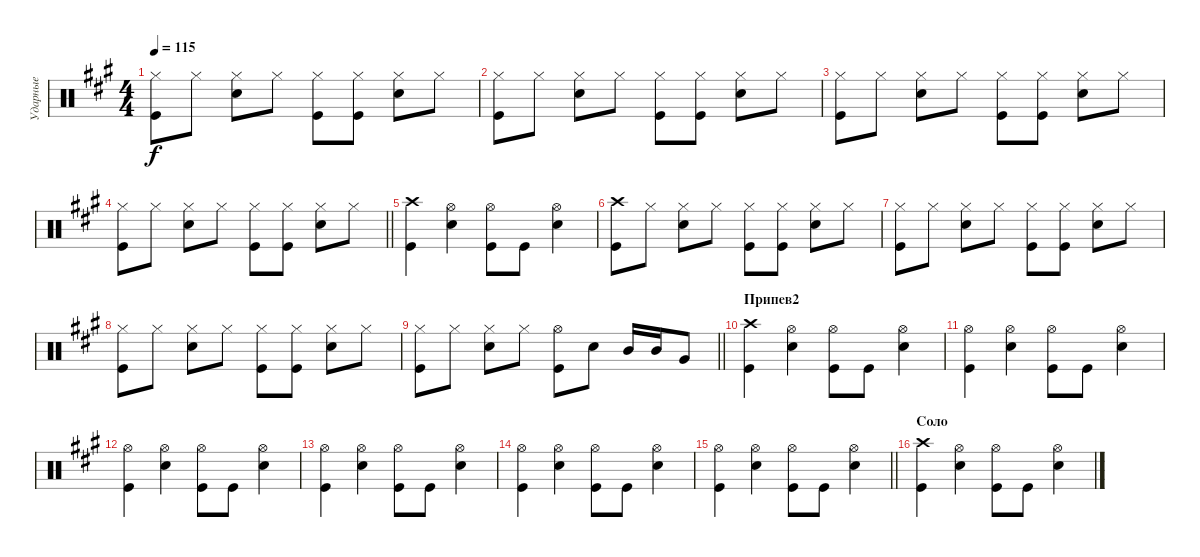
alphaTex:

\track ("Ударные" "Ударные") {instrument percussion}
\staff {score}
\articulation defaults
\ts (4 4)
\tempo 115
\clef neutral
\ks a
("Hi-Hat (closed)" "Kick (hit)").8{dy f} "Hi-Hat (closed)".8 ("Snare (hit) 2" "Hi-Hat (closed)").8 "Hi-Hat (closed)".8 ("Hi-Hat (closed)" "Kick (hit)").8 ("Kick (hit)" "Hi-Hat (closed)").8 ("Hi-Hat (closed)" "Snare (hit) 2").8 "Hi-Hat (closed)".8 |
("Hi-Hat (closed)" "Kick (hit)").8 "Hi-Hat (closed)".8 ("Snare (hit) 2" "Hi-Hat (closed)").8 "Hi-Hat (closed)".8 ("Hi-Hat (closed)" "Kick (hit)").8 ("Kick (hit)" "Hi-Hat (closed)").8 ("Hi-Hat (closed)" "Snare (hit) 2").8 "Hi-Hat (closed)".8 |
("Hi-Hat (closed)" "Kick (hit)").8 "Hi-Hat (closed)".8 ("Snare (hit) 2" "Hi-Hat (closed)").8 "Hi-Hat (closed)".8 ("Hi-Hat (closed)" "Kick (hit)").8 ("Kick (hit)" "Hi-Hat (closed)").8 ("Hi-Hat (closed)" "Snare (hit) 2").8 "Hi-Hat (closed)".8 |
\barLineRight lightlight
("Hi-Hat (closed)" "Kick (hit)").8 "Hi-Hat (closed)".8 ("Snare (hit) 2" "Hi-Hat (closed)").8 "Hi-Hat (closed)".8 ("Hi-Hat (closed)" "Kick (hit)").8 ("Kick (hit)" "Hi-Hat (closed)").8 ("Hi-Hat (closed)" "Snare (hit) 2").8 "Hi-Hat (closed)".8 |
("Crash high (hit)" "Kick (hit)").4 ("Hi-Hat (open)" "Snare (hit) 2").4 ("Hi-Hat (open)" "Kick (hit)").8 "Kick (hit)".8 ("Hi-Hat (open)" "Snare (hit) 2").4 |
("Crash high (hit)" "Kick (hit)").8 "Hi-Hat (closed)".8 ("Hi-Hat (closed)" "Snare (hit) 2").8 "Hi-Hat (closed)".8 ("Hi-Hat (closed)" "Kick (hit)").8 ("Kick (hit)" "Hi-Hat (closed)").8 ("Hi-Hat (closed)" "Snare (hit) 2").8 "Hi-Hat (closed)".8 |
("Hi-Hat (closed)" "Kick (hit)").8 "Hi-Hat (closed)".8 ("Snare (hit) 2" "Hi-Hat (closed)").8 "Hi-Hat (closed)".8 ("Hi-Hat (closed)" "Kick (hit)").8 ("Kick (hit)" "Hi-Hat (closed)").8 ("Hi-Hat (closed)" "Snare (hit) 2").8 "Hi-Hat (closed)".8 |
("Hi-Hat (closed)" "Kick (hit)").8 "Hi-Hat (closed)".8 ("Snare (hit) 2" "Hi-Hat (closed)").8 "Hi-Hat (closed)".8 ("Hi-Hat (closed)" "Kick (hit)").8 ("Kick (hit)" "Hi-Hat (closed)").8 ("Hi-Hat (closed)" "Snare (hit) 2").8 "Hi-Hat (closed)".8 |
\barLineRight lightlight
("Kick (hit)" "Hi-Hat (closed)").8 "Hi-Hat (closed)".8 ("Hi-Hat (closed)" "Snare (hit) 2").8 "Hi-Hat (closed)".8 ("Hi-Hat (open)" "Kick (hit)").8 "Snare (hit) 2".8 "Mid Tom (hit)".16 "Mid Tom (hit)".16 "Very Low Tom (hit)".8 |
\section ("" "Припев2")
("Crash high (hit)" "Kick (hit)").4 ("Hi-Hat (open)" "Snare (hit) 2").4 ("Hi-Hat (open)" "Kick (hit)").8 "Kick (hit)".8 ("Hi-Hat (open)" "Snare (hit) 2").4 |
("Hi-Hat (open)" "Kick (hit)").4 ("Hi-Hat (open)" "Snare (hit) 2").4 ("Hi-Hat (open)" "Kick (hit)").8 "Kick (hit)".8 ("Hi-Hat (open)" "Snare (hit) 2").4 |
("Hi-Hat (open)" "Kick (hit)").4 ("Hi-Hat (open)" "Snare (hit) 2").4 ("Hi-Hat (open)" "Kick (hit)").8 "Kick (hit)".8 ("Hi-Hat (open)" "Snare (hit) 2").4 |
("Hi-Hat (open)" "Kick (hit)").4 ("Hi-Hat (open)" "Snare (hit) 2").4 ("Hi-Hat (open)" "Kick (hit)").8 "Kick (hit)".8 ("Hi-Hat (open)" "Snare (hit) 2").4 |
("Hi-Hat (open)" "Kick (hit)").4 ("Hi-Hat (open)" "Snare (hit) 2").4 ("Hi-Hat (open)" "Kick (hit)").8 "Kick (hit)".8 ("Hi-Hat (open)" "Snare (hit) 2").4 |
\barLineRight lightlight
("Hi-Hat (open)" "Kick (hit)").4 ("Hi-Hat (open)" "Snare (hit) 2").4 ("Hi-Hat (open)" "Kick (hit)").8 "Kick (hit)".8 ("Hi-Hat (open)" "Snare (hit) 2").4 |
\section ("" "Соло")
("Crash high (hit)" "Kick (hit)").4 ("Hi-Hat (open)" "Snare (hit) 2").4 ("Hi-Hat (open)" "Kick (hit)").8 "Kick (hit)".8 ("Hi-Hat (open)" "Snare (hit) 2").4
